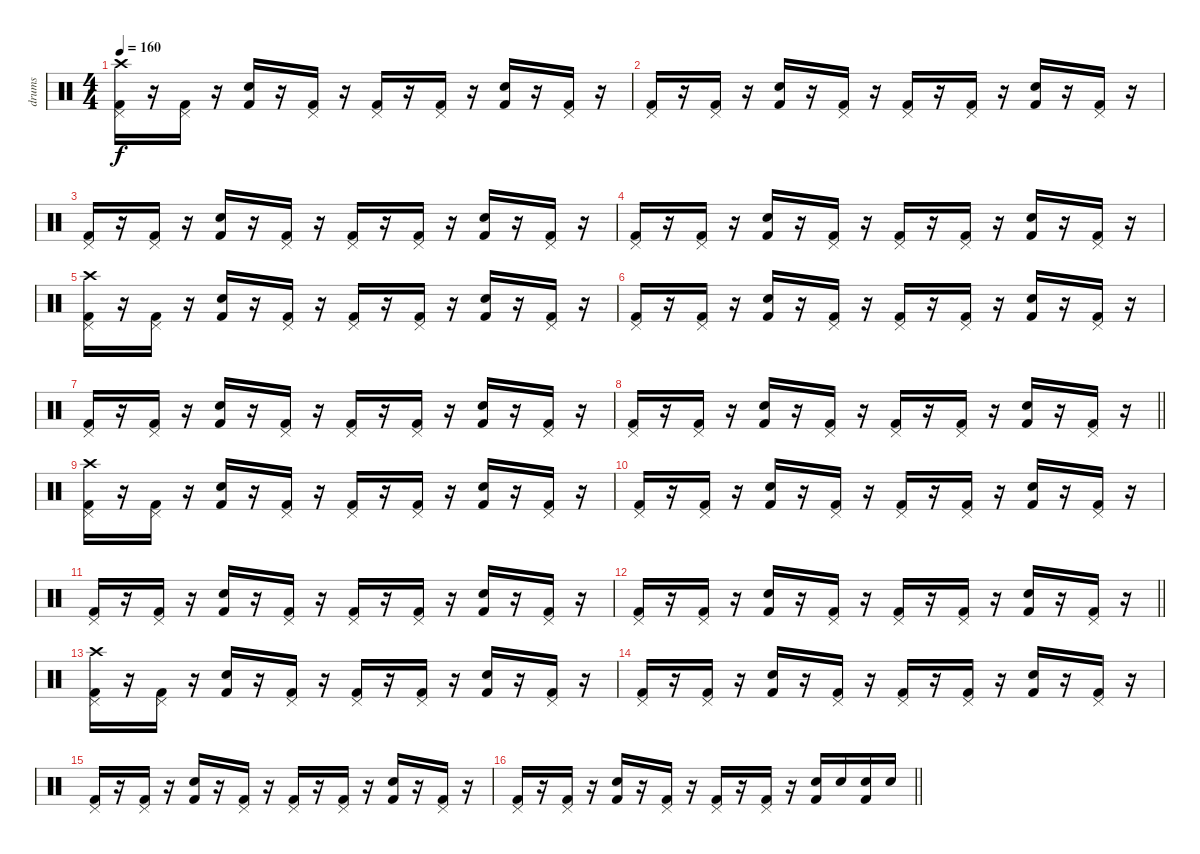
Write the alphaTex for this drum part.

\track ("drums" "drums") {instrument percussion}
\staff {score}
\articulation defaults
\ts (4 4)
\tempo 160
\clef neutral
\ks c
("Crash high (hit)" "Pedal Hi-Hat (hit)" "Kick (hit) 2").16{dy f} r.16 ("Pedal Hi-Hat (hit)" "Kick (hit) 2").16 r.16 ("Snare (hit) 2" "Kick (hit) 2").16 r.16 ("Pedal Hi-Hat (hit)" "Kick (hit) 2").16 r.16 ("Pedal Hi-Hat (hit)" "Kick (hit) 2").16 r.16 ("Pedal Hi-Hat (hit)" "Kick (hit) 2").16 r.16 ("Snare (hit) 2" "Kick (hit) 2").16 r.16 ("Pedal Hi-Hat (hit)" "Kick (hit) 2").16 r.16 |
("Pedal Hi-Hat (hit)" "Kick (hit) 2").16 r.16 ("Pedal Hi-Hat (hit)" "Kick (hit) 2").16 r.16 ("Snare (hit) 2" "Kick (hit) 2").16 r.16 ("Pedal Hi-Hat (hit)" "Kick (hit) 2").16 r.16 ("Pedal Hi-Hat (hit)" "Kick (hit) 2").16 r.16 ("Pedal Hi-Hat (hit)" "Kick (hit) 2").16 r.16 ("Snare (hit) 2" "Kick (hit) 2").16 r.16 ("Pedal Hi-Hat (hit)" "Kick (hit) 2").16 r.16 |
("Pedal Hi-Hat (hit)" "Kick (hit) 2").16 r.16 ("Pedal Hi-Hat (hit)" "Kick (hit) 2").16 r.16 ("Snare (hit) 2" "Kick (hit) 2").16 r.16 ("Pedal Hi-Hat (hit)" "Kick (hit) 2").16 r.16 ("Pedal Hi-Hat (hit)" "Kick (hit) 2").16 r.16 ("Pedal Hi-Hat (hit)" "Kick (hit) 2").16 r.16 ("Snare (hit) 2" "Kick (hit) 2").16 r.16 ("Pedal Hi-Hat (hit)" "Kick (hit) 2").16 r.16 |
("Pedal Hi-Hat (hit)" "Kick (hit) 2").16 r.16 ("Pedal Hi-Hat (hit)" "Kick (hit) 2").16 r.16 ("Snare (hit) 2" "Kick (hit) 2").16 r.16 ("Pedal Hi-Hat (hit)" "Kick (hit) 2").16 r.16 ("Pedal Hi-Hat (hit)" "Kick (hit) 2").16 r.16 ("Pedal Hi-Hat (hit)" "Kick (hit) 2").16 r.16 ("Snare (hit) 2" "Kick (hit) 2").16 r.16 ("Pedal Hi-Hat (hit)" "Kick (hit) 2").16 r.16 |
("Crash high (hit)" "Pedal Hi-Hat (hit)" "Kick (hit) 2").16 r.16 ("Pedal Hi-Hat (hit)" "Kick (hit) 2").16 r.16 ("Snare (hit) 2" "Kick (hit) 2").16 r.16 ("Pedal Hi-Hat (hit)" "Kick (hit) 2").16 r.16 ("Pedal Hi-Hat (hit)" "Kick (hit) 2").16 r.16 ("Pedal Hi-Hat (hit)" "Kick (hit) 2").16 r.16 ("Snare (hit) 2" "Kick (hit) 2").16 r.16 ("Pedal Hi-Hat (hit)" "Kick (hit) 2").16 r.16 |
("Pedal Hi-Hat (hit)" "Kick (hit) 2").16 r.16 ("Pedal Hi-Hat (hit)" "Kick (hit) 2").16 r.16 ("Snare (hit) 2" "Kick (hit) 2").16 r.16 ("Pedal Hi-Hat (hit)" "Kick (hit) 2").16 r.16 ("Pedal Hi-Hat (hit)" "Kick (hit) 2").16 r.16 ("Pedal Hi-Hat (hit)" "Kick (hit) 2").16 r.16 ("Snare (hit) 2" "Kick (hit) 2").16 r.16 ("Pedal Hi-Hat (hit)" "Kick (hit) 2").16 r.16 |
("Pedal Hi-Hat (hit)" "Kick (hit) 2").16 r.16 ("Pedal Hi-Hat (hit)" "Kick (hit) 2").16 r.16 ("Snare (hit) 2" "Kick (hit) 2").16 r.16 ("Pedal Hi-Hat (hit)" "Kick (hit) 2").16 r.16 ("Pedal Hi-Hat (hit)" "Kick (hit) 2").16 r.16 ("Pedal Hi-Hat (hit)" "Kick (hit) 2").16 r.16 ("Snare (hit) 2" "Kick (hit) 2").16 r.16 ("Pedal Hi-Hat (hit)" "Kick (hit) 2").16 r.16 |
\barLineRight lightlight
("Pedal Hi-Hat (hit)" "Kick (hit) 2").16 r.16 ("Pedal Hi-Hat (hit)" "Kick (hit) 2").16 r.16 ("Snare (hit) 2" "Kick (hit) 2").16 r.16 ("Pedal Hi-Hat (hit)" "Kick (hit) 2").16 r.16 ("Pedal Hi-Hat (hit)" "Kick (hit) 2").16 r.16 ("Pedal Hi-Hat (hit)" "Kick (hit) 2").16 r.16 ("Snare (hit) 2" "Kick (hit) 2").16 r.16 ("Pedal Hi-Hat (hit)" "Kick (hit) 2").16 r.16 |
("Crash high (hit)" "Pedal Hi-Hat (hit)" "Kick (hit) 2").16 r.16 ("Pedal Hi-Hat (hit)" "Kick (hit) 2").16 r.16 ("Snare (hit) 2" "Kick (hit) 2").16 r.16 ("Pedal Hi-Hat (hit)" "Kick (hit) 2").16 r.16 ("Pedal Hi-Hat (hit)" "Kick (hit) 2").16 r.16 ("Pedal Hi-Hat (hit)" "Kick (hit) 2").16 r.16 ("Snare (hit) 2" "Kick (hit) 2").16 r.16 ("Pedal Hi-Hat (hit)" "Kick (hit) 2").16 r.16 |
("Pedal Hi-Hat (hit)" "Kick (hit) 2").16 r.16 ("Pedal Hi-Hat (hit)" "Kick (hit) 2").16 r.16 ("Snare (hit) 2" "Kick (hit) 2").16 r.16 ("Pedal Hi-Hat (hit)" "Kick (hit) 2").16 r.16 ("Pedal Hi-Hat (hit)" "Kick (hit) 2").16 r.16 ("Pedal Hi-Hat (hit)" "Kick (hit) 2").16 r.16 ("Snare (hit) 2" "Kick (hit) 2").16 r.16 ("Pedal Hi-Hat (hit)" "Kick (hit) 2").16 r.16 |
("Pedal Hi-Hat (hit)" "Kick (hit) 2").16 r.16 ("Pedal Hi-Hat (hit)" "Kick (hit) 2").16 r.16 ("Snare (hit) 2" "Kick (hit) 2").16 r.16 ("Pedal Hi-Hat (hit)" "Kick (hit) 2").16 r.16 ("Pedal Hi-Hat (hit)" "Kick (hit) 2").16 r.16 ("Pedal Hi-Hat (hit)" "Kick (hit) 2").16 r.16 ("Snare (hit) 2" "Kick (hit) 2").16 r.16 ("Pedal Hi-Hat (hit)" "Kick (hit) 2").16 r.16 |
\barLineRight lightlight
("Pedal Hi-Hat (hit)" "Kick (hit) 2").16 r.16 ("Pedal Hi-Hat (hit)" "Kick (hit) 2").16 r.16 ("Snare (hit) 2" "Kick (hit) 2").16 r.16 ("Pedal Hi-Hat (hit)" "Kick (hit) 2").16 r.16 ("Pedal Hi-Hat (hit)" "Kick (hit) 2").16 r.16 ("Pedal Hi-Hat (hit)" "Kick (hit) 2").16 r.16 ("Snare (hit) 2" "Kick (hit) 2").16 r.16 ("Pedal Hi-Hat (hit)" "Kick (hit) 2").16 r.16 |
("Crash high (hit)" "Pedal Hi-Hat (hit)" "Kick (hit) 2").16 r.16 ("Pedal Hi-Hat (hit)" "Kick (hit) 2").16 r.16 ("Snare (hit) 2" "Kick (hit) 2").16 r.16 ("Pedal Hi-Hat (hit)" "Kick (hit) 2").16 r.16 ("Pedal Hi-Hat (hit)" "Kick (hit) 2").16 r.16 ("Pedal Hi-Hat (hit)" "Kick (hit) 2").16 r.16 ("Snare (hit) 2" "Kick (hit) 2").16 r.16 ("Pedal Hi-Hat (hit)" "Kick (hit) 2").16 r.16 |
("Pedal Hi-Hat (hit)" "Kick (hit) 2").16 r.16 ("Pedal Hi-Hat (hit)" "Kick (hit) 2").16 r.16 ("Snare (hit) 2" "Kick (hit) 2").16 r.16 ("Pedal Hi-Hat (hit)" "Kick (hit) 2").16 r.16 ("Pedal Hi-Hat (hit)" "Kick (hit) 2").16 r.16 ("Pedal Hi-Hat (hit)" "Kick (hit) 2").16 r.16 ("Snare (hit) 2" "Kick (hit) 2").16 r.16 ("Pedal Hi-Hat (hit)" "Kick (hit) 2").16 r.16 |
("Pedal Hi-Hat (hit)" "Kick (hit) 2").16 r.16 ("Pedal Hi-Hat (hit)" "Kick (hit) 2").16 r.16 ("Snare (hit) 2" "Kick (hit) 2").16 r.16 ("Pedal Hi-Hat (hit)" "Kick (hit) 2").16 r.16 ("Pedal Hi-Hat (hit)" "Kick (hit) 2").16 r.16 ("Pedal Hi-Hat (hit)" "Kick (hit) 2").16 r.16 ("Snare (hit) 2" "Kick (hit) 2").16 r.16 ("Pedal Hi-Hat (hit)" "Kick (hit) 2").16 r.16 |
\barLineRight lightlight
("Pedal Hi-Hat (hit)" "Kick (hit) 2").16 r.16 ("Pedal Hi-Hat (hit)" "Kick (hit) 2").16 r.16 ("Snare (hit) 2" "Kick (hit) 2").16 r.16 ("Pedal Hi-Hat (hit)" "Kick (hit) 2").16 r.16 ("Pedal Hi-Hat (hit)" "Kick (hit) 2").16 r.16 ("Pedal Hi-Hat (hit)" "Kick (hit) 2").16 r.16 ("Electric Snare (hit)" "Kick (hit) 2").16 "Electric Snare (hit)".16 ("Electric Snare (hit)" "Kick (hit) 2").16 "Electric Snare (hit)".16
